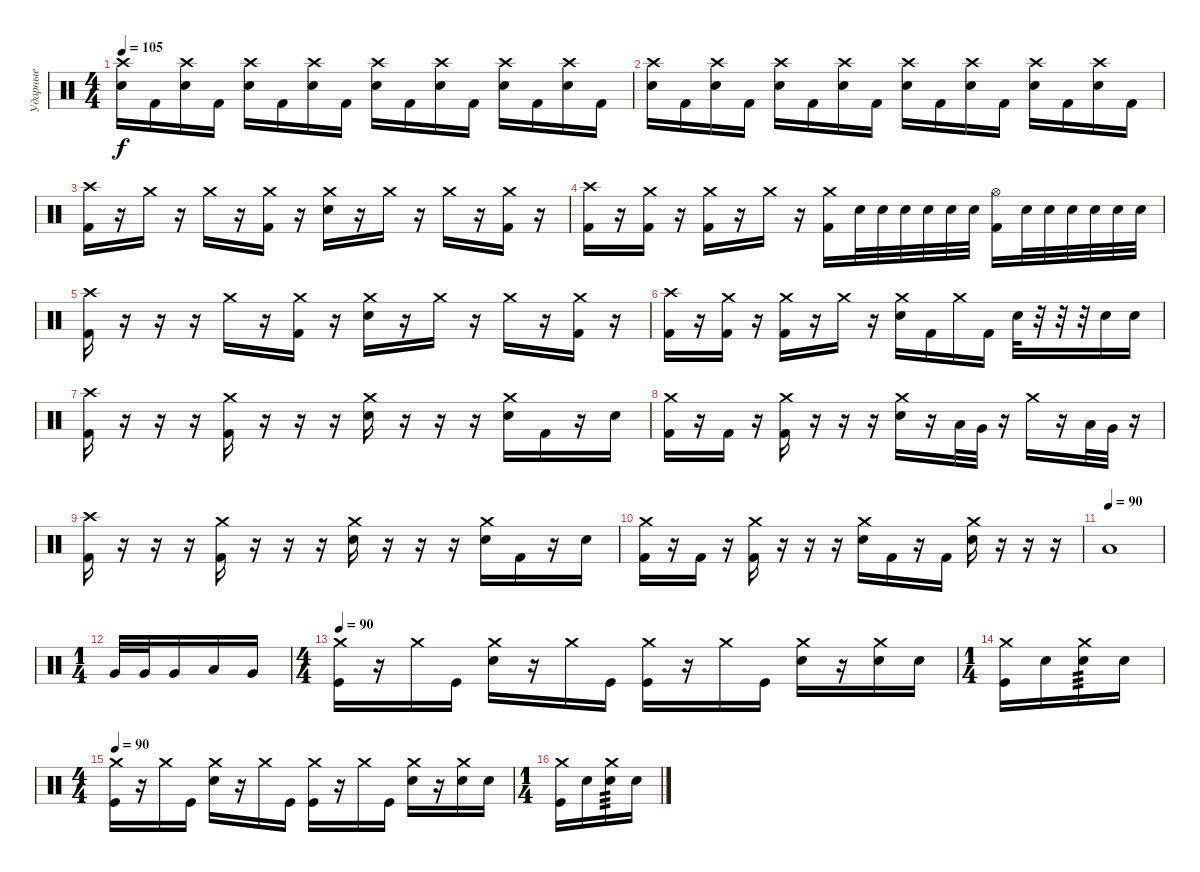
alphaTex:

\track ("Ударные" "Ударные") {instrument percussion}
\staff {score}
\articulation defaults
\ts (4 4)
\tempo 105
\clef neutral
\ks c
("Electric Snare (hit)" "Crash high (hit)").16{dy f} "Kick (hit) 2".16 ("Electric Snare (hit)" "Crash high (hit)").16 "Kick (hit) 2".16 ("Electric Snare (hit)" "Crash high (hit)").16 "Kick (hit) 2".16 ("Electric Snare (hit)" "Crash high (hit)").16 "Kick (hit) 2".16 ("Electric Snare (hit)" "Crash high (hit)").16 "Kick (hit) 2".16 ("Electric Snare (hit)" "Crash high (hit)").16 "Kick (hit) 2".16 ("Electric Snare (hit)" "Crash high (hit)").16 "Kick (hit) 2".16 ("Electric Snare (hit)" "Crash high (hit)").16 "Kick (hit) 2".16 |
("Electric Snare (hit)" "Crash high (hit)").16 "Kick (hit) 2".16 ("Electric Snare (hit)" "Crash high (hit)").16 "Kick (hit) 2".16 ("Electric Snare (hit)" "Crash high (hit)").16 "Kick (hit) 2".16 ("Electric Snare (hit)" "Crash high (hit)").16 "Kick (hit) 2".16 ("Electric Snare (hit)" "Crash high (hit)").16 "Kick (hit) 2".16 ("Electric Snare (hit)" "Crash high (hit)").16 "Kick (hit) 2".16 ("Electric Snare (hit)" "Crash high (hit)").16 "Kick (hit) 2".16 ("Electric Snare (hit)" "Crash high (hit)").16 "Kick (hit) 2".16 |
("Crash high (hit)" "Kick (hit) 2").16 r.16 "Crash medium (hit)".16 r.16 "Crash medium (hit)".16 r.16 ("Crash medium (hit)" "Kick (hit) 2").16 r.16 ("Crash medium (hit)" "Electric Snare (hit)").16 r.16 "Crash medium (hit)".16 r.16 "Crash medium (hit)".16 r.16 ("Crash medium (hit)" "Kick (hit) 2").16 r.16 |
("Crash high (hit)" "Kick (hit) 2").16 r.16 ("Crash medium (hit)" "Kick (hit) 2").16 r.16 ("Crash medium (hit)" "Kick (hit) 2").16 r.16 "Crash medium (hit)".16 r.16 ("Crash medium (hit)" "Kick (hit) 2").16 "Electric Snare (hit)".32 "Electric Snare (hit)".32 "Electric Snare (hit)".32 "Electric Snare (hit)".32 "Electric Snare (hit)".32 "Electric Snare (hit)".32 ("Kick (hit) 2" "Hi-Hat (open)").16 "Electric Snare (hit)".32 "Electric Snare (hit)".32 "Electric Snare (hit)".32 "Electric Snare (hit)".32 "Electric Snare (hit)".32 "Electric Snare (hit)".32 |
("Crash high (hit)" "Kick (hit) 2").16 r.16 r.16 r.16 "Crash medium (hit)".16 r.16 ("Crash medium (hit)" "Kick (hit) 2").16 r.16 ("Crash medium (hit)" "Electric Snare (hit)").16 r.16 "Crash medium (hit)".16 r.16 "Crash medium (hit)".16 r.16 ("Crash medium (hit)" "Kick (hit) 2").16 r.16 |
("Crash high (hit)" "Kick (hit) 2").16 r.16 ("Crash medium (hit)" "Kick (hit) 2").16 r.16 ("Crash medium (hit)" "Kick (hit) 2").16 r.16 "Crash medium (hit)".16 r.16 ("Crash medium (hit)" "Electric Snare (hit)").16 "Kick (hit) 2".16 "Crash medium (hit)".16 "Kick (hit) 2".16 "Electric Snare (hit)".32 r.32 r.32 r.32 "Electric Snare (hit)".16 "Electric Snare (hit)".16 |
("Crash high (hit)" "Kick (hit) 2").16 r.16 r.16 r.16 ("Crash medium (hit)" "Kick (hit) 2").16 r.16 r.16 r.16 ("Crash medium (hit)" "Electric Snare (hit)").16 r.16 r.16 r.16 ("Crash medium (hit)" "Electric Snare (hit)").16 "Kick (hit) 2".16 r.16 "Electric Snare (hit)".16 |
("Crash medium (hit)" "Kick (hit) 2").16 r.16 "Kick (hit) 2".16 r.16 ("Crash medium (hit)" "Kick (hit) 2").16 r.16 r.16 r.16 ("Crash medium (hit)" "Electric Snare (hit)").16 r.16 "Low Tom (hit)".32 "Very Low Tom (hit)".32 r.16 "Crash medium (hit)".16 r.16 "Low Tom (hit)".32 "Very Low Tom (hit)".32 r.16 |
("Crash high (hit)" "Kick (hit) 2").16 r.16 r.16 r.16 ("Crash medium (hit)" "Kick (hit) 2").16 r.16 r.16 r.16 ("Crash medium (hit)" "Electric Snare (hit)").16 r.16 r.16 r.16 ("Crash medium (hit)" "Electric Snare (hit)").16 "Kick (hit) 2".16 r.16 "Electric Snare (hit)".16 |
("Crash medium (hit)" "Kick (hit) 2").16 r.16 "Kick (hit) 2".16 r.16 ("Crash medium (hit)" "Kick (hit) 2").16 r.16 r.16 r.16 ("Crash medium (hit)" "Electric Snare (hit)").16 "Kick (hit) 2".16 r.16 "Kick (hit) 2".16 ("Crash medium (hit)" "Electric Snare (hit)").16 r.16 r.16 r.16 |
\tempo (90)
"Low Floor Tom (hit)".1 |
\ts (1 4)
"Very Low Tom (hit)".32 "Very Low Tom (hit)".32 "Very Low Tom (hit)".16 "Low Floor Tom (hit)".16 "Very Low Tom (hit)".16 |
\ts (4 4)
\tempo 90
("Crash medium (hit)" "Kick (hit)").16 r.16 "Crash medium (hit)".16 "Kick (hit)".16 ("Crash medium (hit)" "Electric Snare (hit)").16 r.16 "Crash medium (hit)".16 "Kick (hit)".16 ("Crash medium (hit)" "Kick (hit)").16 r.16 "Crash medium (hit)".16 "Kick (hit)".16 ("Crash medium (hit)" "Electric Snare (hit)").16 r.16 ("Crash medium (hit)" "Electric Snare (hit)").16 "Electric Snare (hit)".16 |
\ts (1 4)
("Crash medium (hit)" "Kick (hit)").16 "Electric Snare (hit)".16 ("Crash medium (hit)" "Electric Snare (hit)").16{tp 3} "Electric Snare (hit)".16 |
\ts (4 4)
\tempo 90
("Crash medium (hit)" "Kick (hit)").16 r.16 "Crash medium (hit)".16 "Kick (hit)".16 ("Crash medium (hit)" "Electric Snare (hit)").16 r.16 "Crash medium (hit)".16 "Kick (hit)".16 ("Crash medium (hit)" "Kick (hit)").16 r.16 "Crash medium (hit)".16 "Kick (hit)".16 ("Crash medium (hit)" "Electric Snare (hit)").16 r.16 ("Crash medium (hit)" "Electric Snare (hit)").16 "Electric Snare (hit)".16 |
\ts (1 4)
("Crash medium (hit)" "Kick (hit)").16 "Electric Snare (hit)".16 ("Crash medium (hit)" "Electric Snare (hit)").16{tp 3} "Electric Snare (hit)".16
